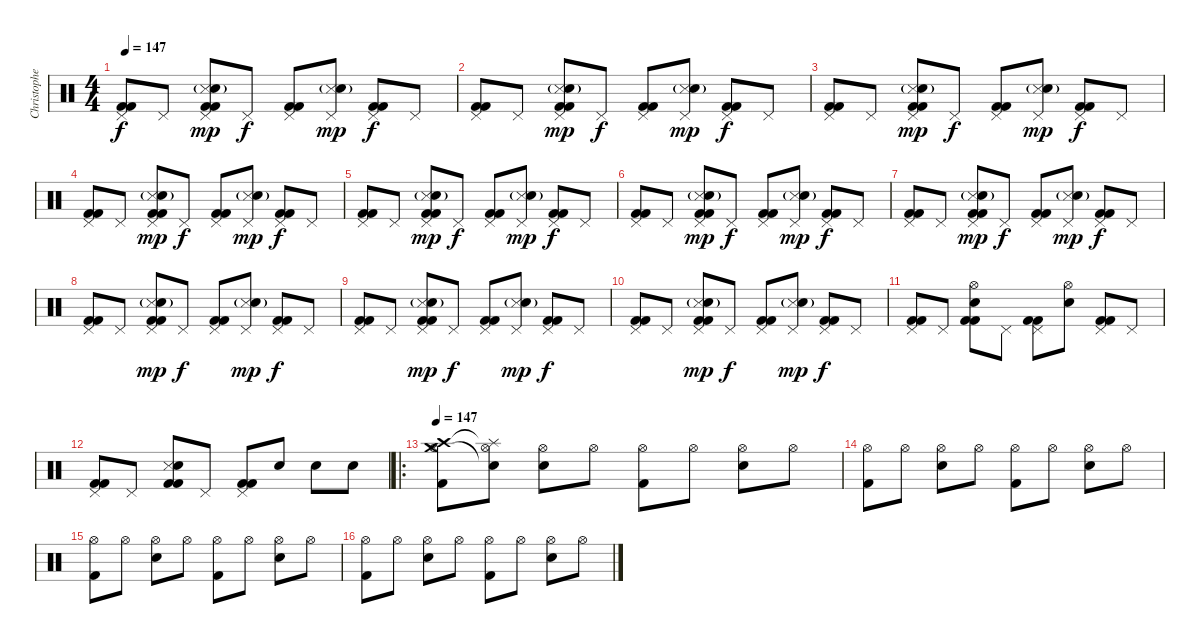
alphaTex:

\track ("Christopher Schneider  (Drums)" "Christophe") {instrument percussion}
\staff {score}
\articulation defaults
\ts (4 4)
\tempo 147
\clef neutral
\ks c
("Pedal Hi-Hat (hit)" "Kick (hit) 2" "Kick (hit) 2").8{dy f} "Pedal Hi-Hat (hit)".8 ("Pedal Hi-Hat (hit)" "Snare (side stick) 3" "Electric Snare (hit)"{g} "Kick (hit) 2" "Kick (hit) 2").8{dy mp} "Pedal Hi-Hat (hit)".8{dy f} ("Pedal Hi-Hat (hit)" "Kick (hit) 2" "Kick (hit) 2").8 ("Pedal Hi-Hat (hit)" "Snare (side stick) 3" "Electric Snare (hit)"{g}).8{dy mp} ("Pedal Hi-Hat (hit)" "Kick (hit) 2" "Kick (hit) 2").8{dy f} "Pedal Hi-Hat (hit)".8 |
("Pedal Hi-Hat (hit)" "Kick (hit) 2" "Kick (hit) 2").8 "Pedal Hi-Hat (hit)".8 ("Pedal Hi-Hat (hit)" "Snare (side stick) 3" "Electric Snare (hit)"{g} "Kick (hit) 2" "Kick (hit) 2").8{dy mp} "Pedal Hi-Hat (hit)".8{dy f} ("Pedal Hi-Hat (hit)" "Kick (hit) 2" "Kick (hit) 2").8 ("Pedal Hi-Hat (hit)" "Snare (side stick) 3" "Electric Snare (hit)"{g}).8{dy mp} ("Pedal Hi-Hat (hit)" "Kick (hit) 2" "Kick (hit) 2").8{dy f} "Pedal Hi-Hat (hit)".8 |
("Pedal Hi-Hat (hit)" "Kick (hit) 2" "Kick (hit) 2").8 "Pedal Hi-Hat (hit)".8 ("Pedal Hi-Hat (hit)" "Snare (side stick) 3" "Electric Snare (hit)"{g} "Kick (hit) 2" "Kick (hit) 2").8{dy mp} "Pedal Hi-Hat (hit)".8{dy f} ("Pedal Hi-Hat (hit)" "Kick (hit) 2" "Kick (hit) 2").8 ("Pedal Hi-Hat (hit)" "Snare (side stick) 3" "Electric Snare (hit)"{g}).8{dy mp} ("Pedal Hi-Hat (hit)" "Kick (hit) 2" "Kick (hit) 2").8{dy f} "Pedal Hi-Hat (hit)".8 |
("Pedal Hi-Hat (hit)" "Kick (hit) 2" "Kick (hit) 2").8 "Pedal Hi-Hat (hit)".8 ("Pedal Hi-Hat (hit)" "Snare (side stick) 3" "Electric Snare (hit)"{g} "Kick (hit) 2" "Kick (hit) 2").8{dy mp} "Pedal Hi-Hat (hit)".8{dy f} ("Pedal Hi-Hat (hit)" "Kick (hit) 2" "Kick (hit) 2").8 ("Pedal Hi-Hat (hit)" "Snare (side stick) 3" "Electric Snare (hit)"{g}).8{dy mp} ("Pedal Hi-Hat (hit)" "Kick (hit) 2" "Kick (hit) 2").8{dy f} "Pedal Hi-Hat (hit)".8 |
("Pedal Hi-Hat (hit)" "Kick (hit) 2" "Kick (hit) 2").8 "Pedal Hi-Hat (hit)".8 ("Pedal Hi-Hat (hit)" "Snare (side stick) 3" "Electric Snare (hit)"{g} "Kick (hit) 2" "Kick (hit) 2").8{dy mp} "Pedal Hi-Hat (hit)".8{dy f} ("Pedal Hi-Hat (hit)" "Kick (hit) 2" "Kick (hit) 2").8 ("Pedal Hi-Hat (hit)" "Snare (side stick) 3" "Electric Snare (hit)"{g}).8{dy mp} ("Pedal Hi-Hat (hit)" "Kick (hit) 2" "Kick (hit) 2").8{dy f} "Pedal Hi-Hat (hit)".8 |
("Pedal Hi-Hat (hit)" "Kick (hit) 2" "Kick (hit) 2").8 "Pedal Hi-Hat (hit)".8 ("Pedal Hi-Hat (hit)" "Snare (side stick) 3" "Electric Snare (hit)"{g} "Kick (hit) 2" "Kick (hit) 2").8{dy mp} "Pedal Hi-Hat (hit)".8{dy f} ("Pedal Hi-Hat (hit)" "Kick (hit) 2" "Kick (hit) 2").8 ("Pedal Hi-Hat (hit)" "Snare (side stick) 3" "Electric Snare (hit)"{g}).8{dy mp} ("Pedal Hi-Hat (hit)" "Kick (hit) 2" "Kick (hit) 2").8{dy f} "Pedal Hi-Hat (hit)".8 |
("Pedal Hi-Hat (hit)" "Kick (hit) 2" "Kick (hit) 2").8 "Pedal Hi-Hat (hit)".8 ("Pedal Hi-Hat (hit)" "Snare (side stick) 3" "Electric Snare (hit)"{g} "Kick (hit) 2" "Kick (hit) 2").8{dy mp} "Pedal Hi-Hat (hit)".8{dy f} ("Pedal Hi-Hat (hit)" "Kick (hit) 2" "Kick (hit) 2").8 ("Pedal Hi-Hat (hit)" "Snare (side stick) 3" "Electric Snare (hit)"{g}).8{dy mp} ("Pedal Hi-Hat (hit)" "Kick (hit) 2" "Kick (hit) 2").8{dy f} "Pedal Hi-Hat (hit)".8 |
("Pedal Hi-Hat (hit)" "Kick (hit) 2" "Kick (hit) 2").8 "Pedal Hi-Hat (hit)".8 ("Pedal Hi-Hat (hit)" "Snare (side stick) 3" "Electric Snare (hit)"{g} "Kick (hit) 2" "Kick (hit) 2").8{dy mp} "Pedal Hi-Hat (hit)".8{dy f} ("Pedal Hi-Hat (hit)" "Kick (hit) 2" "Kick (hit) 2").8 ("Pedal Hi-Hat (hit)" "Snare (side stick) 3" "Electric Snare (hit)"{g}).8{dy mp} ("Pedal Hi-Hat (hit)" "Kick (hit) 2" "Kick (hit) 2").8{dy f} "Pedal Hi-Hat (hit)".8 |
("Pedal Hi-Hat (hit)" "Kick (hit) 2" "Kick (hit) 2").8 "Pedal Hi-Hat (hit)".8 ("Pedal Hi-Hat (hit)" "Snare (side stick) 3" "Electric Snare (hit)"{g} "Kick (hit) 2" "Kick (hit) 2").8{dy mp} "Pedal Hi-Hat (hit)".8{dy f} ("Pedal Hi-Hat (hit)" "Kick (hit) 2" "Kick (hit) 2").8 ("Pedal Hi-Hat (hit)" "Snare (side stick) 3" "Electric Snare (hit)"{g}).8{dy mp} ("Pedal Hi-Hat (hit)" "Kick (hit) 2" "Kick (hit) 2").8{dy f} "Pedal Hi-Hat (hit)".8 |
("Pedal Hi-Hat (hit)" "Kick (hit) 2" "Kick (hit) 2").8 "Pedal Hi-Hat (hit)".8 ("Pedal Hi-Hat (hit)" "Snare (side stick) 3" "Electric Snare (hit)"{g} "Kick (hit) 2" "Kick (hit) 2").8{dy mp} "Pedal Hi-Hat (hit)".8{dy f} ("Pedal Hi-Hat (hit)" "Kick (hit) 2" "Kick (hit) 2").8 ("Pedal Hi-Hat (hit)" "Snare (side stick) 3" "Electric Snare (hit)"{g}).8{dy mp} ("Pedal Hi-Hat (hit)" "Kick (hit) 2" "Kick (hit) 2").8{dy f} "Pedal Hi-Hat (hit)".8 |
("Pedal Hi-Hat (hit)" "Kick (hit) 2" "Kick (hit) 2").8 "Pedal Hi-Hat (hit)".8 ("Hi-Hat (open)" "Electric Snare (hit)" "Kick (hit) 2" "Kick (hit) 2").8 "Pedal Hi-Hat (hit)".8 ("Pedal Hi-Hat (hit)" "Kick (hit) 2" "Kick (hit) 2").8 ("Hi-Hat (open)" "Electric Snare (hit)").8 ("Pedal Hi-Hat (hit)" "Kick (hit) 2" "Kick (hit) 2").8 "Pedal Hi-Hat (hit)".8 |
("Pedal Hi-Hat (hit)" "Kick (hit) 2" "Kick (hit) 2").8 "Pedal Hi-Hat (hit)".8 ("Snare (side stick) 3" "Electric Snare (hit)" "Kick (hit) 2" "Kick (hit) 2").8 "Pedal Hi-Hat (hit)".8 ("Pedal Hi-Hat (hit)" "Kick (hit) 2" "Kick (hit) 2").8 "Electric Snare (hit)".8 "Electric Snare (hit)".8 "Electric Snare (hit)".8 |
\ro
\tempo 147
("Crash high (hit)" "Hi-Hat (open)" "Crash medium (hit)" "Kick (hit) 2").8 ("Splash (hit)"{t} "Hi-Hat (open)" "Snare (hit)"{t}).8 ("Hi-Hat (open)" "Electric Snare (hit)").8 "Hi-Hat (open)".8 ("Hi-Hat (open)" "Kick (hit) 2").8 "Hi-Hat (open)".8 ("Hi-Hat (open)" "Electric Snare (hit)").8 "Hi-Hat (open)".8 |
("Hi-Hat (open)" "Kick (hit) 2").8 "Hi-Hat (open)".8 ("Hi-Hat (open)" "Electric Snare (hit)").8 "Hi-Hat (open)".8 ("Hi-Hat (open)" "Kick (hit) 2").8 "Hi-Hat (open)".8 ("Hi-Hat (open)" "Electric Snare (hit)").8 "Hi-Hat (open)".8 |
("Hi-Hat (open)" "Kick (hit) 2").8 "Hi-Hat (open)".8 ("Hi-Hat (open)" "Electric Snare (hit)").8 "Hi-Hat (open)".8 ("Hi-Hat (open)" "Kick (hit) 2").8 "Hi-Hat (open)".8 ("Hi-Hat (open)" "Electric Snare (hit)").8 "Hi-Hat (open)".8 |
("Hi-Hat (open)" "Kick (hit) 2").8 "Hi-Hat (open)".8 ("Hi-Hat (open)" "Electric Snare (hit)").8 "Hi-Hat (open)".8 ("Hi-Hat (open)" "Kick (hit) 2").8 "Hi-Hat (open)".8 ("Hi-Hat (open)" "Electric Snare (hit)").8 "Hi-Hat (open)".8
